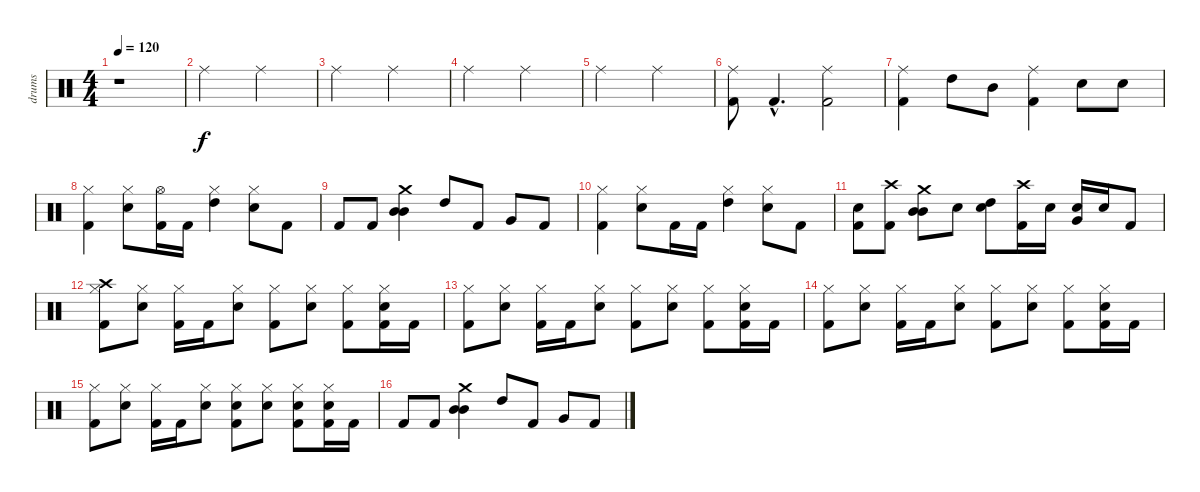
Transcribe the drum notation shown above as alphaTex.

\track ("drums" "drums") {instrument percussion}
\staff {score}
\articulation defaults
\ts (4 4)
\tempo 120
\clef neutral
\ks c
r.1{dy f} |
"Ride (middle)".2 "Ride (middle)".2 |
"Ride (middle)".2 "Ride (middle)".2 |
"Ride (middle)".2 "Ride (middle)".2 |
"Ride (middle)".2 "Ride (middle)".2 |
("Ride (middle)" "Kick (hit) 2").8 "Kick (hit) 2"{hac}.4{d} ("Ride (middle)" "Kick (hit) 2").2 |
("Ride (middle)" "Kick (hit) 2").4 "High Tom (hit)".8 "Mid Tom (hit)".8 ("Ride (middle)" "Kick (hit) 2").4 "Electric Snare (hit)".8 "Electric Snare (hit)".8 |
("Hi-Hat (closed)" "Kick (hit) 2").4 ("Hi-Hat (closed)" "Electric Snare (hit)").8 ("Hi-Hat (open)" "Kick (hit) 2").16 "Kick (hit) 2".16 ("Hi-Hat (closed)" "High Tom (hit)").4 ("Hi-Hat (closed)" "Electric Snare (hit)").8 "Kick (hit) 2".8 |
"Kick (hit) 2".8 "Kick (hit) 2".8 ("Mid Tom (hit)" "Mid Tom (hit)" "Crash medium (hit)").4 "High Tom (hit)".8 "Kick (hit) 2".8 "Very Low Tom (hit)".8 "Kick (hit) 2".8 |
("Hi-Hat (closed)" "Kick (hit) 2").4 ("Hi-Hat (closed)" "Electric Snare (hit)").8 "Kick (hit) 2".16 "Kick (hit) 2".16 ("Hi-Hat (closed)" "High Tom (hit)").4 ("Hi-Hat (closed)" "Electric Snare (hit)").8 "Kick (hit) 2".8 |
("Electric Snare (hit)" "Kick (hit) 2").8 ("Crash high (hit)" "Kick (hit) 2").8 ("Mid Tom (hit)" "Mid Tom (hit)" "Crash medium (hit)").8 "Electric Snare (hit)".8 ("Electric Snare (hit)" "High Tom (hit)").8 ("Crash high (hit)" "Kick (hit) 2").16 "Electric Snare (hit)".16 ("Electric Snare (hit)" "Very Low Tom (hit)").16 "Electric Snare (hit)".16 "Kick (hit) 2".8 |
("Hi-Hat (closed)" "Crash high (hit)" "Kick (hit) 2").8 ("Hi-Hat (closed)" "Electric Snare (hit)").8 ("Hi-Hat (closed)" "Kick (hit) 2").16 "Kick (hit) 2".16 ("Hi-Hat (closed)" "Electric Snare (hit)").8 ("Hi-Hat (closed)" "Kick (hit) 2").8 ("Hi-Hat (closed)" "Electric Snare (hit)").8 ("Hi-Hat (closed)" "Kick (hit) 2").8 ("Hi-Hat (closed)" "Electric Snare (hit)" "Kick (hit) 2").16 "Kick (hit) 2".16 |
("Hi-Hat (closed)" "Kick (hit) 2").8 ("Hi-Hat (closed)" "Electric Snare (hit)").8 ("Hi-Hat (closed)" "Kick (hit) 2").16 "Kick (hit) 2".16 ("Hi-Hat (closed)" "Electric Snare (hit)").8 ("Hi-Hat (closed)" "Kick (hit) 2").8 ("Hi-Hat (closed)" "Electric Snare (hit)").8 ("Hi-Hat (closed)" "Kick (hit) 2").8 ("Hi-Hat (closed)" "Electric Snare (hit)" "Kick (hit) 2").16 "Kick (hit) 2".16 |
("Hi-Hat (closed)" "Kick (hit) 2").8 ("Hi-Hat (closed)" "Electric Snare (hit)").8 ("Hi-Hat (closed)" "Kick (hit) 2").16 "Kick (hit) 2".16 ("Hi-Hat (closed)" "Electric Snare (hit)").8 ("Hi-Hat (closed)" "Kick (hit) 2").8 ("Hi-Hat (closed)" "Electric Snare (hit)").8 ("Hi-Hat (closed)" "Kick (hit) 2").8 ("Hi-Hat (closed)" "Electric Snare (hit)" "Kick (hit) 2").16 "Kick (hit) 2".16 |
("Hi-Hat (closed)" "Kick (hit) 2").8 ("Hi-Hat (closed)" "Electric Snare (hit)").8 ("Hi-Hat (closed)" "Kick (hit) 2").16 "Kick (hit) 2".16 ("Hi-Hat (closed)" "Electric Snare (hit)").8 ("Hi-Hat (closed)" "Electric Snare (hit)" "Kick (hit) 2").8 ("Hi-Hat (closed)" "Electric Snare (hit)").8 ("Hi-Hat (closed)" "Electric Snare (hit)" "Kick (hit) 2").8 ("Hi-Hat (closed)" "Electric Snare (hit)" "Kick (hit) 2").16 "Kick (hit) 2".16 |
"Kick (hit) 2".8 "Kick (hit) 2".8 ("Mid Tom (hit)" "Mid Tom (hit)" "Crash medium (hit)").4 "High Tom (hit)".8 "Kick (hit) 2".8 "Very Low Tom (hit)".8 "Kick (hit) 2".8
